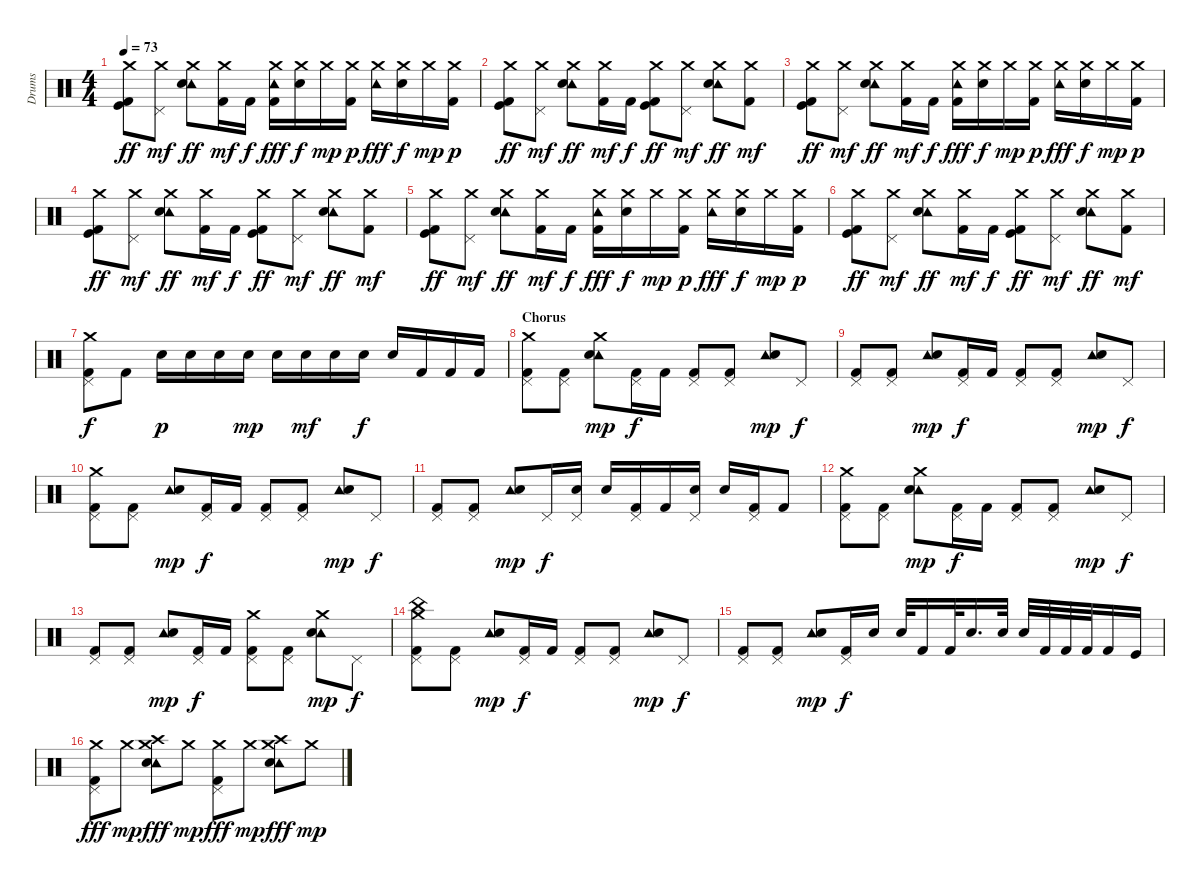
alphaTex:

\track ("Drums" "Drums") {instrument percussion}
\staff {score}
\articulation defaults
\ts (4 4)
\tempo 73
\clef neutral
\ks c
("Crash medium (hit)" "Kick (hit) 2" "Kick (hit)").8{dy ff} ("Crash medium (hit)" "Pedal Hi-Hat (hit)").8{dy mf} ("Crash medium (hit)" "Tambourine (hit)" "Snare (hit) 2").8{dy ff} ("Crash medium (hit)" "Kick (hit) 2").16{dy mf} "Kick (hit) 2".16{dy f} ("Crash medium (hit)" "Tambourine (hit)" "Kick (hit) 2").16{dy fff} ("Crash medium (hit)" "Electric Snare (hit)").16{dy f} "Crash medium (hit)".16{dy mp} ("Crash medium (hit)" "Kick (hit) 2").16{dy p} ("Crash medium (hit)" "Tambourine (hit)").16{dy fff} ("Crash medium (hit)" "Snare (hit) 2").16{dy f} "Crash medium (hit)".16{dy mp} ("Crash medium (hit)" "Kick (hit) 2").16{dy p} |
("Crash medium (hit)" "Kick (hit) 2" "Kick (hit)").8{dy ff} ("Crash medium (hit)" "Pedal Hi-Hat (hit)").8{dy mf} ("Crash medium (hit)" "Tambourine (hit)" "Snare (hit) 2").8{dy ff} ("Crash medium (hit)" "Kick (hit) 2").16{dy mf} "Kick (hit) 2".16{dy f} ("Crash medium (hit)" "Kick (hit) 2" "Kick (hit)").8{dy ff} ("Crash medium (hit)" "Pedal Hi-Hat (hit)").8{dy mf} ("Crash medium (hit)" "Tambourine (hit)" "Snare (hit) 2").8{dy ff} ("Crash medium (hit)" "Kick (hit) 2").8{dy mf} |
("Crash medium (hit)" "Kick (hit) 2" "Kick (hit)").8{dy ff} ("Crash medium (hit)" "Pedal Hi-Hat (hit)").8{dy mf} ("Crash medium (hit)" "Tambourine (hit)" "Snare (hit) 2").8{dy ff} ("Crash medium (hit)" "Kick (hit) 2").16{dy mf} "Kick (hit) 2".16{dy f} ("Crash medium (hit)" "Tambourine (hit)" "Kick (hit) 2").16{dy fff} ("Crash medium (hit)" "Electric Snare (hit)").16{dy f} "Crash medium (hit)".16{dy mp} ("Crash medium (hit)" "Kick (hit) 2").16{dy p} ("Crash medium (hit)" "Tambourine (hit)").16{dy fff} ("Crash medium (hit)" "Snare (hit) 2").16{dy f} "Crash medium (hit)".16{dy mp} ("Crash medium (hit)" "Kick (hit) 2").16{dy p} |
("Crash medium (hit)" "Kick (hit) 2" "Kick (hit)").8{dy ff} ("Crash medium (hit)" "Pedal Hi-Hat (hit)").8{dy mf} ("Crash medium (hit)" "Tambourine (hit)" "Snare (hit) 2").8{dy ff} ("Crash medium (hit)" "Kick (hit) 2").16{dy mf} "Kick (hit) 2".16{dy f} ("Crash medium (hit)" "Kick (hit) 2" "Kick (hit)").8{dy ff} ("Crash medium (hit)" "Pedal Hi-Hat (hit)").8{dy mf} ("Crash medium (hit)" "Tambourine (hit)" "Snare (hit) 2").8{dy ff} ("Crash medium (hit)" "Kick (hit) 2").8{dy mf} |
("Crash medium (hit)" "Kick (hit) 2" "Kick (hit)").8{dy ff} ("Crash medium (hit)" "Pedal Hi-Hat (hit)").8{dy mf} ("Crash medium (hit)" "Tambourine (hit)" "Snare (hit) 2").8{dy ff} ("Crash medium (hit)" "Kick (hit) 2").16{dy mf} "Kick (hit) 2".16{dy f} ("Crash medium (hit)" "Tambourine (hit)" "Kick (hit) 2").16{dy fff} ("Crash medium (hit)" "Electric Snare (hit)").16{dy f} "Crash medium (hit)".16{dy mp} ("Crash medium (hit)" "Kick (hit) 2").16{dy p} ("Crash medium (hit)" "Tambourine (hit)").16{dy fff} ("Crash medium (hit)" "Snare (hit) 2").16{dy f} "Crash medium (hit)".16{dy mp} ("Crash medium (hit)" "Kick (hit) 2").16{dy p} |
("Crash medium (hit)" "Kick (hit) 2" "Kick (hit)").8{dy ff} ("Crash medium (hit)" "Pedal Hi-Hat (hit)").8{dy mf} ("Crash medium (hit)" "Tambourine (hit)" "Snare (hit) 2").8{dy ff} ("Crash medium (hit)" "Kick (hit) 2").16{dy mf} "Kick (hit) 2".16{dy f} ("Crash medium (hit)" "Kick (hit) 2" "Kick (hit)").8{dy ff} ("Crash medium (hit)" "Pedal Hi-Hat (hit)").8{dy mf} ("Crash medium (hit)" "Tambourine (hit)" "Snare (hit) 2").8{dy ff} ("Crash medium (hit)" "Kick (hit) 2").8{dy mf} |
("Crash medium (hit)" "Pedal Hi-Hat (hit)" "Kick (hit) 2").8{dy f} "Kick (hit) 2".8 "Snare (hit) 2".16{dy p} "Snare (hit) 2".16 "Snare (hit) 2".16 "Snare (hit) 2".16{dy mp} "Snare (hit) 2".16 "Snare (hit) 2".16{dy mf} "Snare (hit) 2".16 "Snare (hit) 2".16{dy f} "Snare (hit) 2".16 "Kick (hit) 2".16 "Kick (hit) 2".16 "Kick (hit) 2".16 |
\section ("" "Chorus")
("Crash medium (hit)" "Pedal Hi-Hat (hit)" "Kick (hit) 2").8 ("Pedal Hi-Hat (hit)" "Kick (hit) 2").8 ("Crash medium (hit)" "Tambourine (hit)" "Snare (hit) 2").8{dy mp} ("Pedal Hi-Hat (hit)" "Kick (hit) 2").16{dy f} "Kick (hit) 2".16 ("Pedal Hi-Hat (hit)" "Kick (hit) 2").8 ("Pedal Hi-Hat (hit)" "Kick (hit) 2").8 ("Tambourine (hit)" "Snare (hit) 2").8{dy mp} "Pedal Hi-Hat (hit)".8{dy f} |
("Pedal Hi-Hat (hit)" "Kick (hit) 2").8 ("Pedal Hi-Hat (hit)" "Kick (hit) 2").8 ("Tambourine (hit)" "Snare (hit) 2").8{dy mp} ("Pedal Hi-Hat (hit)" "Kick (hit) 2").16{dy f} "Kick (hit) 2".16 ("Pedal Hi-Hat (hit)" "Kick (hit) 2").8 ("Pedal Hi-Hat (hit)" "Kick (hit) 2").8 ("Tambourine (hit)" "Snare (hit) 2").8{dy mp} "Pedal Hi-Hat (hit)".8{dy f} |
("Crash medium (hit)" "Pedal Hi-Hat (hit)" "Kick (hit) 2").8 ("Pedal Hi-Hat (hit)" "Kick (hit) 2").8 ("Tambourine (hit)" "Snare (hit) 2").8{dy mp} ("Pedal Hi-Hat (hit)" "Kick (hit) 2").16{dy f} "Kick (hit) 2".16 ("Pedal Hi-Hat (hit)" "Kick (hit) 2").8 ("Pedal Hi-Hat (hit)" "Kick (hit) 2").8 ("Tambourine (hit)" "Snare (hit) 2").8{dy mp} "Pedal Hi-Hat (hit)".8{dy f} |
("Pedal Hi-Hat (hit)" "Kick (hit) 2").8 ("Pedal Hi-Hat (hit)" "Kick (hit) 2").8 ("Tambourine (hit)" "Snare (hit) 2").8{dy mp} "Pedal Hi-Hat (hit)".16{dy f} ("Pedal Hi-Hat (hit)" "Snare (hit) 2").16 "Snare (hit) 2".16 ("Pedal Hi-Hat (hit)" "Kick (hit) 2").16 "Kick (hit) 2".16 ("Pedal Hi-Hat (hit)" "Snare (hit) 2").16 "Snare (hit) 2".16 ("Pedal Hi-Hat (hit)" "Kick (hit) 2").16 "Kick (hit) 2".8 |
("Crash medium (hit)" "Pedal Hi-Hat (hit)" "Kick (hit) 2").8 ("Pedal Hi-Hat (hit)" "Kick (hit) 2").8 ("Crash medium (hit)" "Tambourine (hit)" "Snare (hit) 2").8{dy mp} ("Pedal Hi-Hat (hit)" "Kick (hit) 2").16{dy f} "Kick (hit) 2".16 ("Pedal Hi-Hat (hit)" "Kick (hit) 2").8 ("Pedal Hi-Hat (hit)" "Kick (hit) 2").8 ("Tambourine (hit)" "Snare (hit) 2").8{dy mp} "Pedal Hi-Hat (hit)".8{dy f} |
("Pedal Hi-Hat (hit)" "Kick (hit) 2").8 ("Pedal Hi-Hat (hit)" "Kick (hit) 2").8 ("Tambourine (hit)" "Snare (hit) 2").8{dy mp} ("Pedal Hi-Hat (hit)" "Kick (hit) 2").16{dy f} "Kick (hit) 2".16 ("Crash medium (hit)" "Pedal Hi-Hat (hit)" "Kick (hit) 2").8 ("Pedal Hi-Hat (hit)" "Kick (hit) 2").8 ("Crash medium (hit)" "Tambourine (hit)" "Snare (hit) 2").8{dy mp} "Pedal Hi-Hat (hit)".8{dy f} |
("Crash medium (hit)" "Pedal Hi-Hat (hit)" "China (hit)" "Kick (hit) 2").8 ("Pedal Hi-Hat (hit)" "Kick (hit) 2").8 ("Tambourine (hit)" "Snare (hit) 2").8{dy mp} ("Pedal Hi-Hat (hit)" "Kick (hit) 2").16{dy f} "Kick (hit) 2".16 ("Pedal Hi-Hat (hit)" "Kick (hit) 2").8 ("Pedal Hi-Hat (hit)" "Kick (hit) 2").8 ("Tambourine (hit)" "Snare (hit) 2").8{dy mp} "Pedal Hi-Hat (hit)".8{dy f} |
("Pedal Hi-Hat (hit)" "Kick (hit) 2").8 ("Pedal Hi-Hat (hit)" "Kick (hit) 2").8 ("Tambourine (hit)" "Snare (hit) 2").8{dy mp} ("Pedal Hi-Hat (hit)" "Kick (hit) 2").16{dy f} "Snare (hit) 2".16 "Snare (hit) 2".32 "Kick (hit) 2".16 "Kick (hit) 2".32 "Snare (hit) 2".16{d} "Snare (hit) 2".32 "Snare (hit) 2".32 "Kick (hit) 2".32 "Kick (hit) 2".32 "Kick (hit) 2".32 "Kick (hit) 2".16 "Kick (hit)".16 |
("Crash medium (hit)" "Pedal Hi-Hat (hit)" "Kick (hit) 2").8{dy fff} "Crash medium (hit)".8{dy mp} ("Crash medium (hit)" "Tambourine (hit)" "Crash high (hit)" "Snare (hit) 2").8{dy fff} "Crash medium (hit)".8{dy mp} ("Crash medium (hit)" "Pedal Hi-Hat (hit)" "Kick (hit) 2").8{dy fff} "Crash medium (hit)".8{dy mp} ("Crash medium (hit)" "Tambourine (hit)" "Crash high (hit)" "Snare (hit) 2").8{dy fff} "Crash medium (hit)".8{dy mp}
